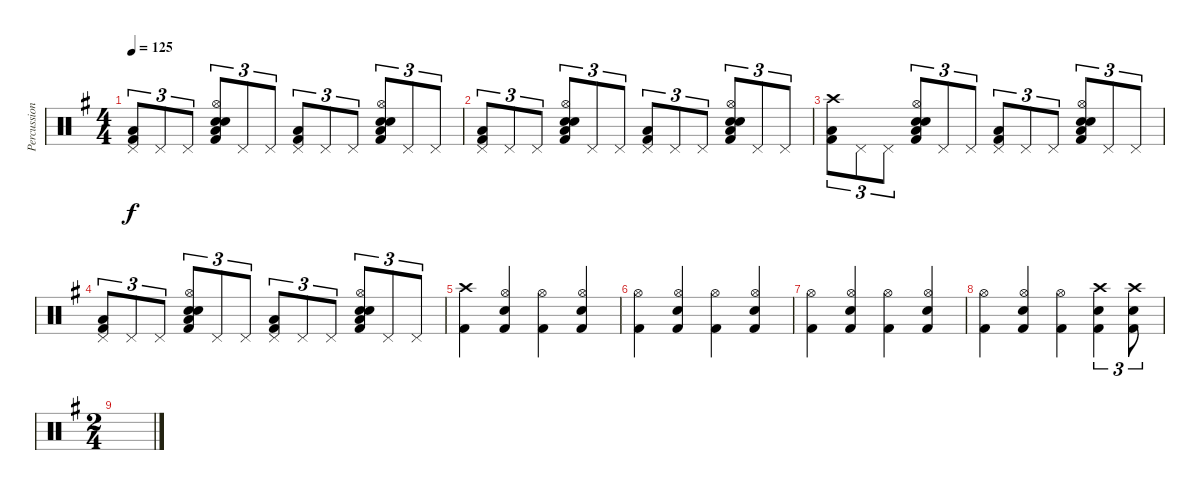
\track ("Percussion" "Percussion") {instrument percussion}
\staff {score}
\articulation defaults
\ts (4 4)
\tempo 125
\clef neutral
\ks eminor
("Pedal Hi-Hat (hit)" "Low Floor Tom (hit)" "Kick (hit) 2").8{tu (3 2) dy f} "Pedal Hi-Hat (hit)".8{tu (3 2)} "Pedal Hi-Hat (hit)".8{tu (3 2)} ("Hi-Hat (open)" "Electric Snare (hit)" "Hand Clap (hit)" "Low Floor Tom (hit)" "Kick (hit) 2").8{tu (3 2)} "Pedal Hi-Hat (hit)".8{tu (3 2)} "Pedal Hi-Hat (hit)".8{tu (3 2)} ("Pedal Hi-Hat (hit)" "Low Floor Tom (hit)" "Kick (hit) 2").8{tu (3 2)} "Pedal Hi-Hat (hit)".8{tu (3 2)} "Pedal Hi-Hat (hit)".8{tu (3 2)} ("Hi-Hat (open)" "Electric Snare (hit)" "Hand Clap (hit)" "Low Floor Tom (hit)" "Kick (hit) 2").8{tu (3 2)} "Pedal Hi-Hat (hit)".8{tu (3 2)} "Pedal Hi-Hat (hit)".8{tu (3 2)} |
("Pedal Hi-Hat (hit)" "Low Floor Tom (hit)" "Kick (hit) 2").8{tu (3 2)} "Pedal Hi-Hat (hit)".8{tu (3 2)} "Pedal Hi-Hat (hit)".8{tu (3 2)} ("Hi-Hat (open)" "Electric Snare (hit)" "Hand Clap (hit)" "Low Floor Tom (hit)" "Kick (hit) 2").8{tu (3 2)} "Pedal Hi-Hat (hit)".8{tu (3 2)} "Pedal Hi-Hat (hit)".8{tu (3 2)} ("Pedal Hi-Hat (hit)" "Low Floor Tom (hit)" "Kick (hit) 2").8{tu (3 2)} "Pedal Hi-Hat (hit)".8{tu (3 2)} "Pedal Hi-Hat (hit)".8{tu (3 2)} ("Hi-Hat (open)" "Electric Snare (hit)" "Hand Clap (hit)" "Low Floor Tom (hit)" "Kick (hit) 2").8{tu (3 2)} "Pedal Hi-Hat (hit)".8{tu (3 2)} "Pedal Hi-Hat (hit)".8{tu (3 2)} |
("Crash high (hit)" "Low Floor Tom (hit)" "Kick (hit) 2").8{tu (3 2)} "Pedal Hi-Hat (hit)".8{tu (3 2)} "Pedal Hi-Hat (hit)".8{tu (3 2)} ("Hi-Hat (open)" "Electric Snare (hit)" "Hand Clap (hit)" "Low Floor Tom (hit)" "Kick (hit) 2").8{tu (3 2)} "Pedal Hi-Hat (hit)".8{tu (3 2)} "Pedal Hi-Hat (hit)".8{tu (3 2)} ("Pedal Hi-Hat (hit)" "Low Floor Tom (hit)" "Kick (hit) 2").8{tu (3 2)} "Pedal Hi-Hat (hit)".8{tu (3 2)} "Pedal Hi-Hat (hit)".8{tu (3 2)} ("Hi-Hat (open)" "Electric Snare (hit)" "Hand Clap (hit)" "Low Floor Tom (hit)" "Kick (hit) 2").8{tu (3 2)} "Pedal Hi-Hat (hit)".8{tu (3 2)} "Pedal Hi-Hat (hit)".8{tu (3 2)} |
("Pedal Hi-Hat (hit)" "Low Floor Tom (hit)" "Kick (hit) 2").8{tu (3 2)} "Pedal Hi-Hat (hit)".8{tu (3 2)} "Pedal Hi-Hat (hit)".8{tu (3 2)} ("Hi-Hat (open)" "Electric Snare (hit)" "Hand Clap (hit)" "Low Floor Tom (hit)" "Kick (hit) 2").8{tu (3 2)} "Pedal Hi-Hat (hit)".8{tu (3 2)} "Pedal Hi-Hat (hit)".8{tu (3 2)} ("Pedal Hi-Hat (hit)" "Low Floor Tom (hit)" "Kick (hit) 2").8{tu (3 2)} "Pedal Hi-Hat (hit)".8{tu (3 2)} "Pedal Hi-Hat (hit)".8{tu (3 2)} ("Hi-Hat (open)" "Electric Snare (hit)" "Hand Clap (hit)" "Low Floor Tom (hit)" "Kick (hit) 2").8{tu (3 2)} "Pedal Hi-Hat (hit)".8{tu (3 2)} "Pedal Hi-Hat (hit)".8{tu (3 2)} |
("Crash high (hit)" "Kick (hit) 2").4 ("Hi-Hat (open)" "Electric Snare (hit)" "Kick (hit) 2").4 ("Hi-Hat (open)" "Kick (hit) 2").4 ("Hi-Hat (open)" "Electric Snare (hit)" "Kick (hit) 2").4 |
("Hi-Hat (open)" "Kick (hit) 2").4 ("Hi-Hat (open)" "Electric Snare (hit)" "Kick (hit) 2").4 ("Hi-Hat (open)" "Kick (hit) 2").4 ("Hi-Hat (open)" "Electric Snare (hit)" "Kick (hit) 2").4 |
("Hi-Hat (open)" "Kick (hit) 2").4 ("Hi-Hat (open)" "Electric Snare (hit)" "Kick (hit) 2").4 ("Hi-Hat (open)" "Kick (hit) 2").4 ("Hi-Hat (open)" "Electric Snare (hit)" "Kick (hit) 2").4 |
("Hi-Hat (open)" "Kick (hit) 2").4 ("Hi-Hat (open)" "Electric Snare (hit)" "Kick (hit) 2").4 ("Hi-Hat (open)" "Kick (hit) 2").4 ("Crash high (hit)" "Electric Snare (hit)" "Kick (hit) 2").4{tu (3 2)} ("Crash high (hit)" "Electric Snare (hit)" "Kick (hit) 2").8{tu (3 2)} |
\ts (2 4)
